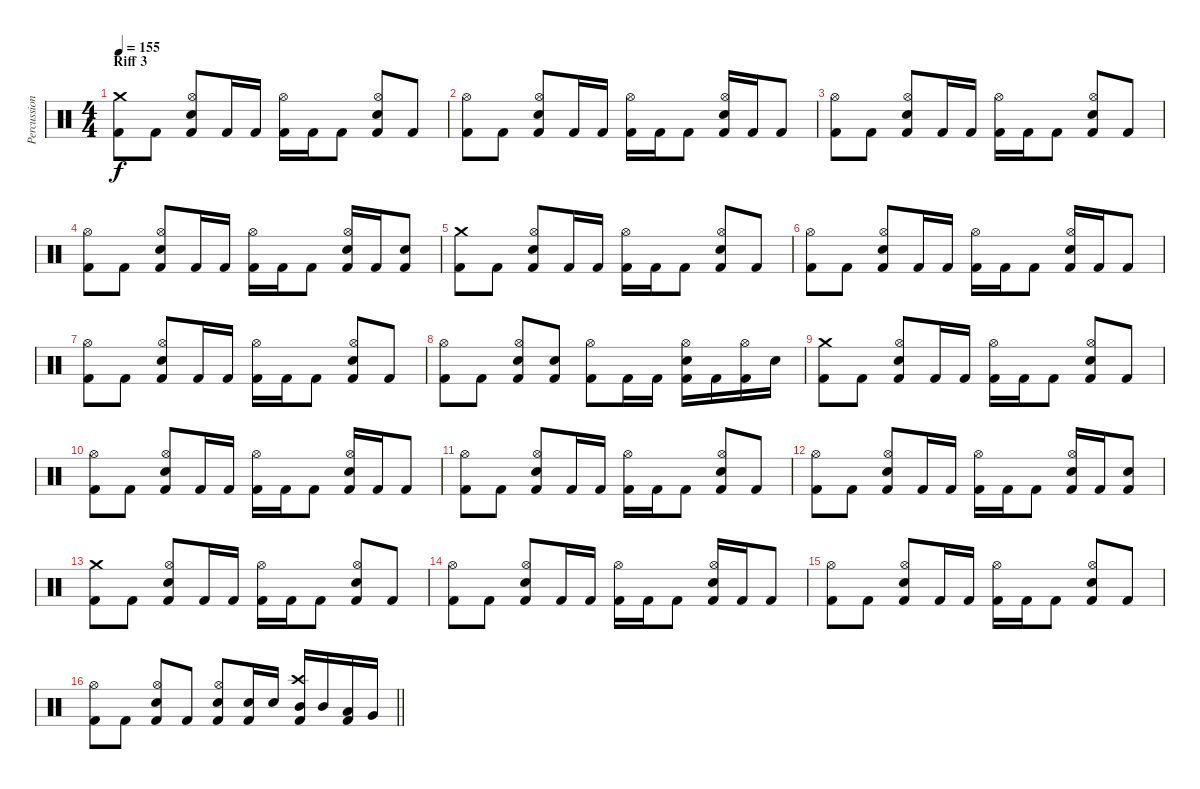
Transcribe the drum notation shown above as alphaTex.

\track ("Percussion" "Percussion") {instrument percussion}
\staff {score}
\articulation defaults
\ts (4 4)
\section ("" "Riff 3")
\tempo 155
\clef neutral
\ks c
("Crash medium (hit)" "Kick (hit) 2").8{dy f} "Kick (hit) 2".8 ("Kick (hit) 2" "Hi-Hat (open)" "Snare (hit) 2").8 "Kick (hit) 2".16 "Kick (hit) 2".16 ("Hi-Hat (open)" "Kick (hit) 2").16 "Kick (hit) 2".16 "Kick (hit) 2".8 ("Kick (hit) 2" "Hi-Hat (open)" "Snare (hit) 2").8 "Kick (hit) 2".8 |
("Hi-Hat (open)" "Kick (hit) 2").8 "Kick (hit) 2".8 ("Kick (hit) 2" "Hi-Hat (open)" "Snare (hit) 2").8 "Kick (hit) 2".16 "Kick (hit) 2".16 ("Hi-Hat (open)" "Kick (hit) 2").16 "Kick (hit) 2".16 "Kick (hit) 2".8 ("Kick (hit) 2" "Hi-Hat (open)" "Snare (hit) 2").16 "Kick (hit) 2".16 "Kick (hit) 2".8 |
("Hi-Hat (open)" "Kick (hit) 2").8 "Kick (hit) 2".8 ("Kick (hit) 2" "Hi-Hat (open)" "Snare (hit) 2").8 "Kick (hit) 2".16 "Kick (hit) 2".16 ("Hi-Hat (open)" "Kick (hit) 2").16 "Kick (hit) 2".16 "Kick (hit) 2".8 ("Kick (hit) 2" "Hi-Hat (open)" "Snare (hit) 2").8 "Kick (hit) 2".8 |
("Hi-Hat (open)" "Kick (hit) 2").8 "Kick (hit) 2".8 ("Kick (hit) 2" "Hi-Hat (open)" "Snare (hit) 2").8 "Kick (hit) 2".16 "Kick (hit) 2".16 ("Hi-Hat (open)" "Kick (hit) 2").16 "Kick (hit) 2".16 "Kick (hit) 2".8 ("Kick (hit) 2" "Hi-Hat (open)" "Snare (hit) 2").16 "Kick (hit) 2".16 ("Kick (hit) 2" "Snare (hit) 2").8 |
("Crash medium (hit)" "Kick (hit) 2").8 "Kick (hit) 2".8 ("Kick (hit) 2" "Hi-Hat (open)" "Snare (hit) 2").8 "Kick (hit) 2".16 "Kick (hit) 2".16 ("Hi-Hat (open)" "Kick (hit) 2").16 "Kick (hit) 2".16 "Kick (hit) 2".8 ("Kick (hit) 2" "Hi-Hat (open)" "Snare (hit) 2").8 "Kick (hit) 2".8 |
("Hi-Hat (open)" "Kick (hit) 2").8 "Kick (hit) 2".8 ("Kick (hit) 2" "Hi-Hat (open)" "Snare (hit) 2").8 "Kick (hit) 2".16 "Kick (hit) 2".16 ("Hi-Hat (open)" "Kick (hit) 2").16 "Kick (hit) 2".16 "Kick (hit) 2".8 ("Kick (hit) 2" "Hi-Hat (open)" "Snare (hit) 2").16 "Kick (hit) 2".16 "Kick (hit) 2".8 |
("Hi-Hat (open)" "Kick (hit) 2").8 "Kick (hit) 2".8 ("Kick (hit) 2" "Hi-Hat (open)" "Snare (hit) 2").8 "Kick (hit) 2".16 "Kick (hit) 2".16 ("Hi-Hat (open)" "Kick (hit) 2").16 "Kick (hit) 2".16 "Kick (hit) 2".8 ("Kick (hit) 2" "Hi-Hat (open)" "Snare (hit) 2").8 "Kick (hit) 2".8 |
("Hi-Hat (open)" "Kick (hit) 2").8 "Kick (hit) 2".8 ("Kick (hit) 2" "Hi-Hat (open)" "Snare (hit) 2").8 ("Kick (hit) 2" "Snare (hit) 2").8 ("Hi-Hat (open)" "Kick (hit) 2").8 "Kick (hit) 2".16 "Kick (hit) 2".16 ("Kick (hit) 2" "Hi-Hat (open)" "Snare (hit) 2").16 "Kick (hit) 2".16 ("Hi-Hat (open)" "Kick (hit) 2").16 "Snare (hit) 2".16 |
("Crash medium (hit)" "Kick (hit) 2").8 "Kick (hit) 2".8 ("Kick (hit) 2" "Hi-Hat (open)" "Snare (hit) 2").8 "Kick (hit) 2".16 "Kick (hit) 2".16 ("Hi-Hat (open)" "Kick (hit) 2").16 "Kick (hit) 2".16 "Kick (hit) 2".8 ("Kick (hit) 2" "Hi-Hat (open)" "Snare (hit) 2").8 "Kick (hit) 2".8 |
("Hi-Hat (open)" "Kick (hit) 2").8 "Kick (hit) 2".8 ("Kick (hit) 2" "Hi-Hat (open)" "Snare (hit) 2").8 "Kick (hit) 2".16 "Kick (hit) 2".16 ("Hi-Hat (open)" "Kick (hit) 2").16 "Kick (hit) 2".16 "Kick (hit) 2".8 ("Kick (hit) 2" "Hi-Hat (open)" "Snare (hit) 2").16 "Kick (hit) 2".16 "Kick (hit) 2".8 |
("Hi-Hat (open)" "Kick (hit) 2").8 "Kick (hit) 2".8 ("Kick (hit) 2" "Hi-Hat (open)" "Snare (hit) 2").8 "Kick (hit) 2".16 "Kick (hit) 2".16 ("Hi-Hat (open)" "Kick (hit) 2").16 "Kick (hit) 2".16 "Kick (hit) 2".8 ("Kick (hit) 2" "Hi-Hat (open)" "Snare (hit) 2").8 "Kick (hit) 2".8 |
("Hi-Hat (open)" "Kick (hit) 2").8 "Kick (hit) 2".8 ("Kick (hit) 2" "Hi-Hat (open)" "Snare (hit) 2").8 "Kick (hit) 2".16 "Kick (hit) 2".16 ("Hi-Hat (open)" "Kick (hit) 2").16 "Kick (hit) 2".16 "Kick (hit) 2".8 ("Kick (hit) 2" "Hi-Hat (open)" "Snare (hit) 2").16 "Kick (hit) 2".16 ("Kick (hit) 2" "Snare (hit) 2").8 |
("Crash medium (hit)" "Kick (hit) 2").8 "Kick (hit) 2".8 ("Kick (hit) 2" "Hi-Hat (open)" "Snare (hit) 2").8 "Kick (hit) 2".16 "Kick (hit) 2".16 ("Hi-Hat (open)" "Kick (hit) 2").16 "Kick (hit) 2".16 "Kick (hit) 2".8 ("Kick (hit) 2" "Hi-Hat (open)" "Snare (hit) 2").8 "Kick (hit) 2".8 |
("Hi-Hat (open)" "Kick (hit) 2").8 "Kick (hit) 2".8 ("Kick (hit) 2" "Hi-Hat (open)" "Snare (hit) 2").8 "Kick (hit) 2".16 "Kick (hit) 2".16 ("Hi-Hat (open)" "Kick (hit) 2").16 "Kick (hit) 2".16 "Kick (hit) 2".8 ("Kick (hit) 2" "Hi-Hat (open)" "Snare (hit) 2").16 "Kick (hit) 2".16 "Kick (hit) 2".8 |
("Hi-Hat (open)" "Kick (hit) 2").8 "Kick (hit) 2".8 ("Kick (hit) 2" "Hi-Hat (open)" "Snare (hit) 2").8 "Kick (hit) 2".16 "Kick (hit) 2".16 ("Hi-Hat (open)" "Kick (hit) 2").16 "Kick (hit) 2".16 "Kick (hit) 2".8 ("Kick (hit) 2" "Hi-Hat (open)" "Snare (hit) 2").8 "Kick (hit) 2".8 |
\barLineRight lightlight
("Hi-Hat (open)" "Kick (hit) 2").8 "Kick (hit) 2".8 ("Kick (hit) 2" "Hi-Hat (open)" "Snare (hit) 2").8 "Kick (hit) 2".8 ("Kick (hit) 2" "Hi-Hat (open)" "Snare (hit) 2").8 ("Kick (hit) 2" "Snare (hit) 2").16 "Snare (hit) 2".16 ("Kick (hit) 2" "Crash high (hit)" "Mid Tom (hit)").16 "Mid Tom (hit)".16 ("Kick (hit) 2" "Low Tom (hit)").16 "Very Low Tom (hit)".16
